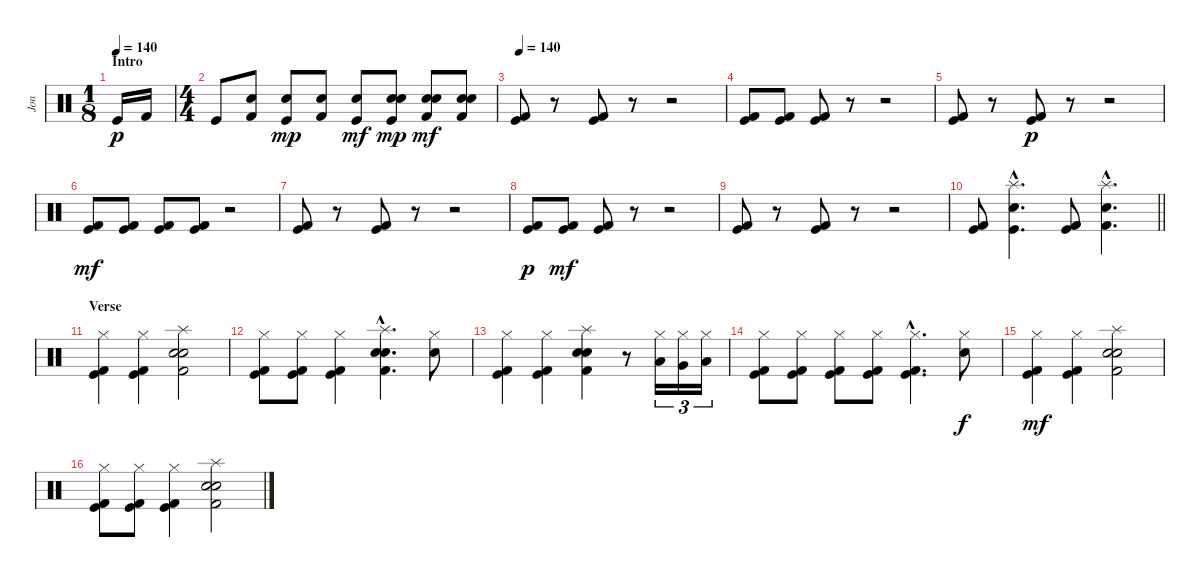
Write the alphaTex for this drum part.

\track ("Jon" "Jon") {instrument percussion}
\staff {score}
\articulation defaults
\ts (1 8)
\section ("" "Intro")
\tempo 140
\tempo 120
\tempo 140
\clef neutral
\ks c "Kick (hit)".16{dy p} "Kick (hit) 2".16
|
\ts (4 4)
"Kick (hit)".8 ("Electric Snare (hit)" "Kick (hit) 2").8 ("Electric Snare (hit)" "Kick (hit)").8{dy mp} ("Electric Snare (hit)" "Kick (hit) 2").8 ("Electric Snare (hit)" "Kick (hit)").8{dy mf} ("Electric Snare (hit)" "Kick (hit)" "Electric Snare (hit)").8{dy mp} ("Electric Snare (hit)" "Kick (hit) 2" "Electric Snare (hit)").8{dy mf} ("Electric Snare (hit)" "Kick (hit) 2" "Electric Snare (hit)").8 |
\tempo 140
("Kick (hit)" "Kick (hit) 2").8 r.8 ("Kick (hit)" "Kick (hit) 2").8 r.8 r.2 |
("Kick (hit)" "Kick (hit) 2").8 ("Kick (hit)" "Kick (hit) 2").8 ("Kick (hit)" "Kick (hit) 2").8 r.8 r.2 |
("Kick (hit)" "Kick (hit) 2").8 r.8 ("Kick (hit)" "Kick (hit) 2").8{dy p} r.8 r.2 |
("Kick (hit)" "Kick (hit) 2").8{dy mf} ("Kick (hit)" "Kick (hit) 2").8 ("Kick (hit)" "Kick (hit) 2").8 ("Kick (hit)" "Kick (hit) 2").8 r.2 |
("Kick (hit)" "Kick (hit) 2").8 r.8 ("Kick (hit)" "Kick (hit) 2").8 r.8 r.2 |
("Kick (hit)" "Kick (hit) 2").8{dy p} ("Kick (hit)" "Kick (hit) 2").8{dy mf} ("Kick (hit)" "Kick (hit) 2").8 r.8 r.2 |
("Kick (hit)" "Kick (hit) 2").8 r.8 ("Kick (hit)" "Kick (hit) 2").8 r.8 r.2 |
\barLineRight lightlight
("Kick (hit)" "Kick (hit) 2").8 ("Electric Snare (hit)"{hac} "Kick (hit)"{hac} "Splash (hit)"{hac}).4{d} ("Kick (hit)" "Kick (hit) 2").8 ("Electric Snare (hit)"{hac} "Kick (hit) 2"{hac} "Splash (hit)"{hac}).4{d} |
\section ("" "Verse")
("Kick (hit)" "Hi-Hat (closed)" "Kick (hit) 2").4 ("Kick (hit)" "Hi-Hat (closed)" "Kick (hit) 2").4 ("Electric Snare (hit)" "Electric Snare (hit)" "Splash (hit)" "Kick (hit) 2").2 |
("Kick (hit) 2" "Kick (hit)" "Hi-Hat (closed)").8 ("Kick (hit) 2" "Kick (hit)" "Hi-Hat (closed)").8 ("Kick (hit) 2" "Kick (hit)" "Hi-Hat (closed)").4 ("Electric Snare (hit)"{hac} "Electric Snare (hit)"{hac} "Splash (hit)"{hac} "Kick (hit) 2"{hac}).4{d} ("Electric Snare (hit)" "Hi-Hat (closed)").8 |
("Kick (hit) 2" "Kick (hit)" "Hi-Hat (closed)").4 ("Kick (hit) 2" "Kick (hit)" "Hi-Hat (closed)").4 ("Electric Snare (hit)" "Electric Snare (hit)" "Splash (hit)" "Kick (hit) 2").4 r.8 ("Low Tom (hit)" "Hi-Hat (closed)").16{tu (3 2)} ("Very Low Tom (hit)" "Hi-Hat (closed)").16{tu (3 2)} ("Low Floor Tom (hit)" "Hi-Hat (closed)").16{tu (3 2)} |
("Kick (hit) 2" "Kick (hit)" "Hi-Hat (closed)").8 ("Kick (hit) 2" "Kick (hit)" "Hi-Hat (closed)").8 ("Kick (hit) 2" "Kick (hit)" "Hi-Hat (closed)").8 ("Kick (hit) 2" "Kick (hit)" "Hi-Hat (closed)").8 ("Kick (hit) 2"{hac} "Kick (hit)"{hac} "Hi-Hat (closed)"{hac}).4{d} ("Electric Snare (hit)" "Hi-Hat (closed)").8{dy f} |
("Kick (hit) 2" "Kick (hit)" "Hi-Hat (closed)").4{dy mf} ("Kick (hit) 2" "Kick (hit)" "Hi-Hat (closed)").4 ("Electric Snare (hit)" "Electric Snare (hit)" "Splash (hit)" "Kick (hit) 2").2 |
("Kick (hit) 2" "Kick (hit)" "Hi-Hat (closed)").8 ("Kick (hit) 2" "Kick (hit)" "Hi-Hat (closed)").8 ("Kick (hit) 2" "Kick (hit)" "Hi-Hat (closed)").4 ("Electric Snare (hit)" "Electric Snare (hit)" "Splash (hit)" "Kick (hit) 2").2
